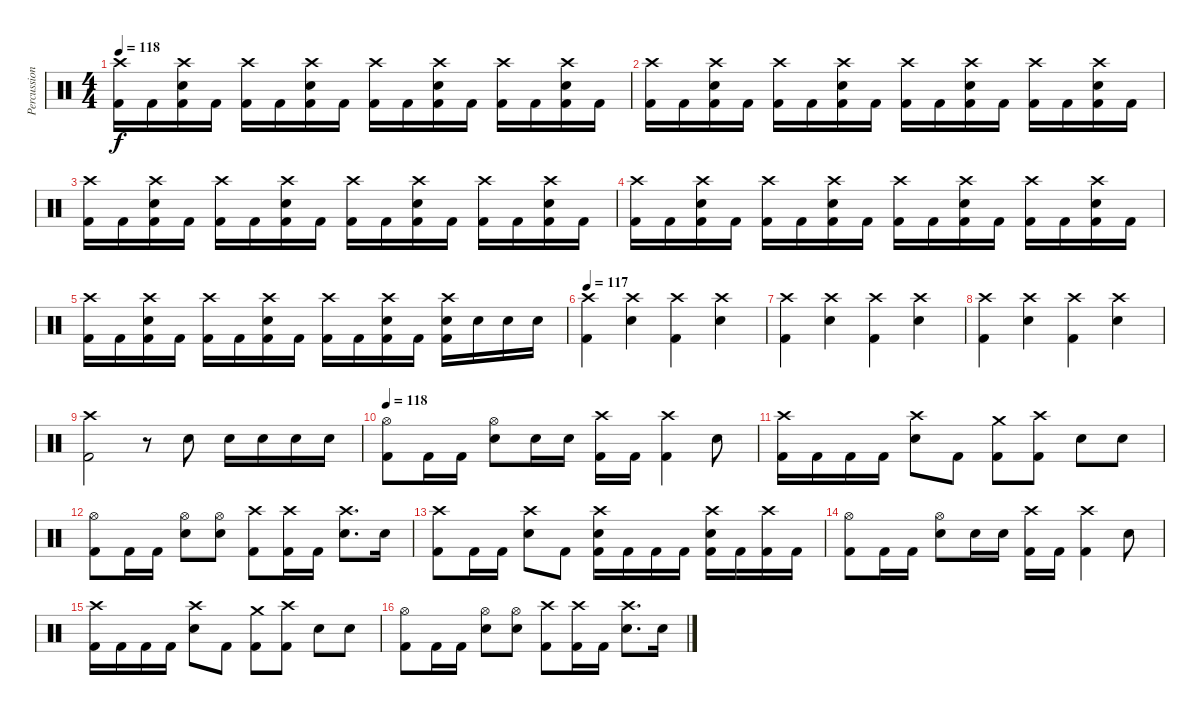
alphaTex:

\track ("Percussions" "Percussion") {instrument percussion}
\staff {score}
\articulation defaults
\ts (4 4)
\tempo 118
\clef neutral
\ks c
("Crash high (hit)" "Kick (hit) 2").16{dy f} "Kick (hit) 2".16 ("Crash high (hit)" "Snare (hit) 2" "Kick (hit) 2").16 "Kick (hit) 2".16 ("Crash high (hit)" "Kick (hit) 2").16 "Kick (hit) 2".16 ("Crash high (hit)" "Snare (hit) 2" "Kick (hit) 2").16 "Kick (hit) 2".16 ("Crash high (hit)" "Kick (hit) 2").16 "Kick (hit) 2".16 ("Crash high (hit)" "Snare (hit) 2" "Kick (hit) 2").16 "Kick (hit) 2".16 ("Crash high (hit)" "Kick (hit) 2").16 "Kick (hit) 2".16 ("Crash high (hit)" "Snare (hit) 2" "Kick (hit) 2").16 "Kick (hit) 2".16 |
("Crash high (hit)" "Kick (hit) 2").16 "Kick (hit) 2".16 ("Crash high (hit)" "Snare (hit) 2" "Kick (hit) 2").16 "Kick (hit) 2".16 ("Crash high (hit)" "Kick (hit) 2").16 "Kick (hit) 2".16 ("Crash high (hit)" "Snare (hit) 2" "Kick (hit) 2").16 "Kick (hit) 2".16 ("Crash high (hit)" "Kick (hit) 2").16 "Kick (hit) 2".16 ("Crash high (hit)" "Snare (hit) 2" "Kick (hit) 2").16 "Kick (hit) 2".16 ("Crash high (hit)" "Kick (hit) 2").16 "Kick (hit) 2".16 ("Crash high (hit)" "Snare (hit) 2" "Kick (hit) 2").16 "Kick (hit) 2".16 |
("Crash high (hit)" "Kick (hit) 2").16 "Kick (hit) 2".16 ("Crash high (hit)" "Snare (hit) 2" "Kick (hit) 2").16 "Kick (hit) 2".16 ("Crash high (hit)" "Kick (hit) 2").16 "Kick (hit) 2".16 ("Crash high (hit)" "Snare (hit) 2" "Kick (hit) 2").16 "Kick (hit) 2".16 ("Crash high (hit)" "Kick (hit) 2").16 "Kick (hit) 2".16 ("Crash high (hit)" "Snare (hit) 2" "Kick (hit) 2").16 "Kick (hit) 2".16 ("Crash high (hit)" "Kick (hit) 2").16 "Kick (hit) 2".16 ("Crash high (hit)" "Snare (hit) 2" "Kick (hit) 2").16 "Kick (hit) 2".16 |
("Crash high (hit)" "Kick (hit) 2").16 "Kick (hit) 2".16 ("Crash high (hit)" "Snare (hit) 2" "Kick (hit) 2").16 "Kick (hit) 2".16 ("Crash high (hit)" "Kick (hit) 2").16 "Kick (hit) 2".16 ("Crash high (hit)" "Snare (hit) 2" "Kick (hit) 2").16 "Kick (hit) 2".16 ("Crash high (hit)" "Kick (hit) 2").16 "Kick (hit) 2".16 ("Crash high (hit)" "Snare (hit) 2" "Kick (hit) 2").16 "Kick (hit) 2".16 ("Crash high (hit)" "Kick (hit) 2").16 "Kick (hit) 2".16 ("Crash high (hit)" "Snare (hit) 2" "Kick (hit) 2").16 "Kick (hit) 2".16 |
("Crash high (hit)" "Kick (hit) 2").16 "Kick (hit) 2".16 ("Crash high (hit)" "Snare (hit) 2" "Kick (hit) 2").16 "Kick (hit) 2".16 ("Crash high (hit)" "Kick (hit) 2").16 "Kick (hit) 2".16 ("Crash high (hit)" "Snare (hit) 2" "Kick (hit) 2").16 "Kick (hit) 2".16 ("Crash high (hit)" "Kick (hit) 2").16 "Kick (hit) 2".16 ("Crash high (hit)" "Snare (hit) 2" "Kick (hit) 2").16 "Kick (hit) 2".16 ("Crash high (hit)" "Snare (hit) 2" "Kick (hit) 2").16 "Snare (hit) 2".16 "Snare (hit) 2".16 "Snare (hit) 2".16 |
\tempo 117
("Crash high (hit)" "Kick (hit) 2").4 ("Crash high (hit)" "Snare (hit) 2").4 ("Crash high (hit)" "Kick (hit) 2").4 ("Crash high (hit)" "Snare (hit) 2").4 |
("Crash high (hit)" "Kick (hit) 2").4 ("Crash high (hit)" "Snare (hit) 2").4 ("Crash high (hit)" "Kick (hit) 2").4 ("Crash high (hit)" "Snare (hit) 2").4 |
("Crash high (hit)" "Kick (hit) 2").4 ("Crash high (hit)" "Snare (hit) 2").4 ("Crash high (hit)" "Kick (hit) 2").4 ("Crash high (hit)" "Snare (hit) 2").4 |
("Crash high (hit)" "Kick (hit) 2").2 r.8 "Snare (hit) 2".8 "Snare (hit) 2".16 "Snare (hit) 2".16 "Snare (hit) 2".16 "Snare (hit) 2".16 |
\tempo 118
("Hi-Hat (open)" "Kick (hit) 2").8 "Kick (hit) 2".16 "Kick (hit) 2".16 ("Hi-Hat (open)" "Snare (hit) 2").8 "Snare (hit) 2".16 "Snare (hit) 2".16 ("Crash high (hit)" "Kick (hit) 2").16 "Kick (hit) 2".16 ("Crash high (hit)" "Kick (hit) 2").4 "Snare (hit) 2".8 |
("Crash high (hit)" "Kick (hit) 2").16 "Kick (hit) 2".16 "Kick (hit) 2".16 "Kick (hit) 2".16 ("Crash high (hit)" "Snare (hit) 2").8 "Kick (hit) 2".8 ("Crash medium (hit)" "Kick (hit) 2").8 ("Crash high (hit)" "Kick (hit) 2").8 "Snare (hit) 2".8 "Snare (hit) 2".8 |
("Hi-Hat (open)" "Kick (hit) 2").8 "Kick (hit) 2".16 "Kick (hit) 2".16 ("Hi-Hat (open)" "Snare (hit) 2").8 ("Hi-Hat (open)" "Snare (hit) 2").8 ("Crash high (hit)" "Kick (hit) 2").8 ("Crash high (hit)" "Kick (hit) 2").16 "Kick (hit) 2".16 ("Crash high (hit)" "Snare (hit) 2").8{d} "Snare (hit) 2".16 |
("Crash high (hit)" "Kick (hit) 2").8 "Kick (hit) 2".16 "Kick (hit) 2".16 ("Crash high (hit)" "Snare (hit) 2").8 "Kick (hit) 2".8 ("Crash high (hit)" "Snare (hit) 2" "Kick (hit) 2").16 "Kick (hit) 2".16 "Kick (hit) 2".16 "Kick (hit) 2".16 ("Crash high (hit)" "Snare (hit) 2" "Kick (hit) 2").16 "Kick (hit) 2".16 ("Crash high (hit)" "Kick (hit) 2").16 "Kick (hit) 2".16 |
("Hi-Hat (open)" "Kick (hit) 2").8 "Kick (hit) 2".16 "Kick (hit) 2".16 ("Hi-Hat (open)" "Snare (hit) 2").8 "Snare (hit) 2".16 "Snare (hit) 2".16 ("Crash high (hit)" "Kick (hit) 2").16 "Kick (hit) 2".16 ("Crash high (hit)" "Kick (hit) 2").4 "Snare (hit) 2".8 |
("Crash high (hit)" "Kick (hit) 2").16 "Kick (hit) 2".16 "Kick (hit) 2".16 "Kick (hit) 2".16 ("Crash high (hit)" "Snare (hit) 2").8 "Kick (hit) 2".8 ("Crash medium (hit)" "Kick (hit) 2").8 ("Crash high (hit)" "Kick (hit) 2").8 "Snare (hit) 2".8 "Snare (hit) 2".8 |
("Hi-Hat (open)" "Kick (hit) 2").8 "Kick (hit) 2".16 "Kick (hit) 2".16 ("Hi-Hat (open)" "Snare (hit) 2").8 ("Hi-Hat (open)" "Snare (hit) 2").8 ("Crash high (hit)" "Kick (hit) 2").8 ("Crash high (hit)" "Kick (hit) 2").16 "Kick (hit) 2".16 ("Crash high (hit)" "Snare (hit) 2").8{d} "Snare (hit) 2".16
